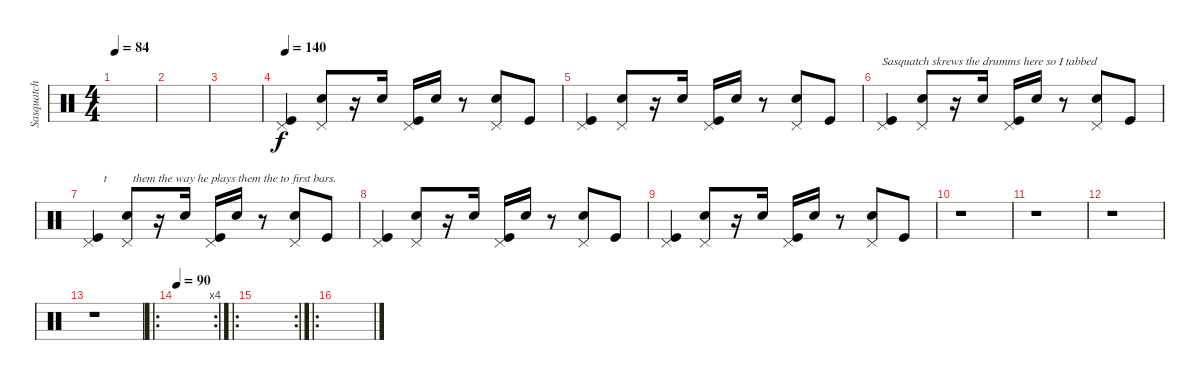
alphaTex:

\track ("Sasquatch" "Sasquatch") {instrument percussion}
\staff {score}
\articulation defaults
\ts (4 4)
\tempo 84
\clef neutral
\ks c
|
|
|
\tempo 140
("Pedal Hi-Hat (hit)" "Kick (hit)").4 ("Pedal Hi-Hat (hit)" "Snare (hit) 2").8 r.16 "Snare (hit) 2".16 ("Pedal Hi-Hat (hit)" "Kick (hit)").16 "Snare (hit) 2".16 r.8 ("Pedal Hi-Hat (hit)" "Snare (hit) 2").8 "Kick (hit)".8 |
("Pedal Hi-Hat (hit)" "Kick (hit)").4 ("Pedal Hi-Hat (hit)" "Snare (hit) 2").8 r.16 "Snare (hit) 2".16 ("Pedal Hi-Hat (hit)" "Kick (hit)").16 "Snare (hit) 2".16 r.8 ("Pedal Hi-Hat (hit)" "Snare (hit) 2").8 "Kick (hit)".8 |
("Pedal Hi-Hat (hit)" "Kick (hit)").4{txt "Sasquatch skrews the drumms here so I tabbed "} ("Pedal Hi-Hat (hit)" "Snare (hit) 2").8 r.16 "Snare (hit) 2".16 ("Pedal Hi-Hat (hit)" "Kick (hit)").16 "Snare (hit) 2".16 r.8 ("Pedal Hi-Hat (hit)" "Snare (hit) 2").8 "Kick (hit)".8 |
("Pedal Hi-Hat (hit)" "Kick (hit)").4{txt "     t"} ("Pedal Hi-Hat (hit)" "Snare (hit) 2").8{txt "  them the way he plays them the to first bars."} r.16 "Snare (hit) 2".16 ("Pedal Hi-Hat (hit)" "Kick (hit)").16 "Snare (hit) 2".16 r.8 ("Pedal Hi-Hat (hit)" "Snare (hit) 2").8 "Kick (hit)".8 |
("Pedal Hi-Hat (hit)" "Kick (hit)").4 ("Pedal Hi-Hat (hit)" "Snare (hit) 2").8 r.16 "Snare (hit) 2".16 ("Pedal Hi-Hat (hit)" "Kick (hit)").16 "Snare (hit) 2".16 r.8 ("Pedal Hi-Hat (hit)" "Snare (hit) 2").8 "Kick (hit)".8 |
("Pedal Hi-Hat (hit)" "Kick (hit)").4 ("Pedal Hi-Hat (hit)" "Snare (hit) 2").8 r.16 "Snare (hit) 2".16 ("Pedal Hi-Hat (hit)" "Kick (hit)").16 "Snare (hit) 2".16 r.8 ("Pedal Hi-Hat (hit)" "Snare (hit) 2").8 "Kick (hit)".8 |
r.1 |
r.1 |
r.1 |
r.1 |
\ro
\rc 4
\tempo 90
|
\ro
\rc 2
|
\ro
